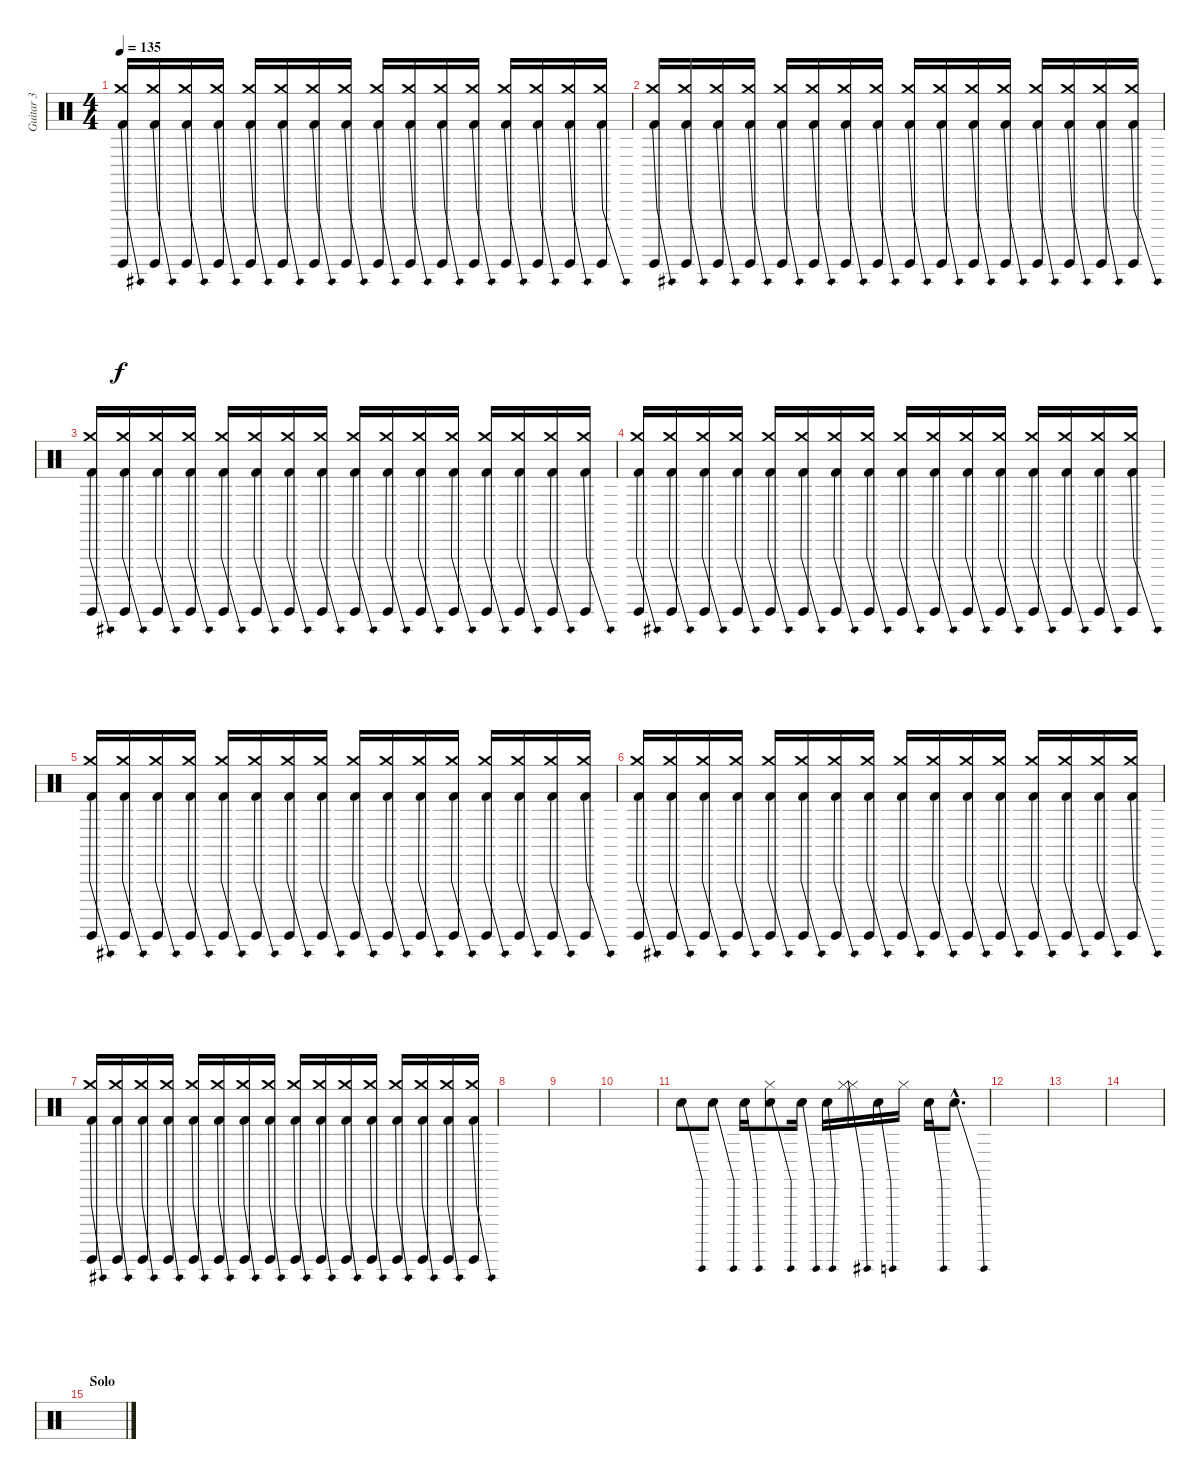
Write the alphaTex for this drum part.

\track ("Guitar 3" "Guitar 3") {instrument percussion}
\staff {score}
\articulation defaults
\ts (4 4)
\tempo 135
\clef neutral
\ks c
("Kick (hit) 2"{be (bend 0 0 60 12)} "Crash medium (hit)" "Guiro (hit)").16{dy f} ("Kick (hit) 2"{be (bend 0 0 60 12)} "Crash medium (hit)" "Guiro (hit)").16 ("Kick (hit) 2"{be (bend 0 0 60 12)} "Crash medium (hit)" "Guiro (hit)").16 ("Kick (hit) 2"{be (bend 0 0 60 12)} "Crash medium (hit)" "Guiro (hit)").16 ("Kick (hit) 2"{be (bend 0 0 60 12)} "Crash medium (hit)" "Guiro (hit)").16 ("Kick (hit) 2"{be (bend 0 0 60 12)} "Crash medium (hit)" "Guiro (hit)").16 ("Kick (hit) 2"{be (bend 0 0 60 12)} "Crash medium (hit)" "Guiro (hit)").16 ("Kick (hit) 2"{be (bend 0 0 60 12)} "Crash medium (hit)" "Guiro (hit)").16 ("Kick (hit) 2"{be (bend 0 0 60 12)} "Crash medium (hit)" "Guiro (hit)").16 ("Kick (hit) 2"{be (bend 0 0 60 12)} "Crash medium (hit)" "Guiro (hit)").16 ("Kick (hit) 2"{be (bend 0 0 60 12)} "Crash medium (hit)" "Guiro (hit)").16 ("Kick (hit) 2"{be (bend 0 0 60 12)} "Crash medium (hit)" "Guiro (hit)").16 ("Kick (hit) 2"{be (bend 0 0 60 12)} "Crash medium (hit)" "Guiro (hit)").16 ("Kick (hit) 2"{be (bend 0 0 60 12)} "Crash medium (hit)" "Guiro (hit)").16 ("Kick (hit) 2"{be (bend 0 0 60 12)} "Crash medium (hit)" "Guiro (hit)").16 ("Kick (hit) 2"{be (bend 0 0 60 12)} "Crash medium (hit)" "Guiro (hit)").16 |
("Kick (hit) 2"{be (bend 0 0 60 12)} "Crash medium (hit)" "Guiro (hit)").16 ("Kick (hit) 2"{be (bend 0 0 60 12)} "Crash medium (hit)" "Guiro (hit)").16 ("Kick (hit) 2"{be (bend 0 0 60 12)} "Crash medium (hit)" "Guiro (hit)").16 ("Kick (hit) 2"{be (bend 0 0 60 12)} "Crash medium (hit)" "Guiro (hit)").16 ("Kick (hit) 2"{be (bend 0 0 60 12)} "Crash medium (hit)" "Guiro (hit)").16 ("Kick (hit) 2"{be (bend 0 0 60 12)} "Crash medium (hit)" "Guiro (hit)").16 ("Kick (hit) 2"{be (bend 0 0 60 12)} "Crash medium (hit)" "Guiro (hit)").16 ("Kick (hit) 2"{be (bend 0 0 60 12)} "Crash medium (hit)" "Guiro (hit)").16 ("Kick (hit) 2"{be (bend 0 0 60 12)} "Crash medium (hit)" "Guiro (hit)").16 ("Kick (hit) 2"{be (bend 0 0 60 12)} "Crash medium (hit)" "Guiro (hit)").16 ("Kick (hit) 2"{be (bend 0 0 60 12)} "Crash medium (hit)" "Guiro (hit)").16 ("Kick (hit) 2"{be (bend 0 0 60 12)} "Crash medium (hit)" "Guiro (hit)").16 ("Kick (hit) 2"{be (bend 0 0 60 12)} "Crash medium (hit)" "Guiro (hit)").16 ("Kick (hit) 2"{be (bend 0 0 60 12)} "Crash medium (hit)" "Guiro (hit)").16 ("Kick (hit) 2"{be (bend 0 0 60 12)} "Crash medium (hit)" "Guiro (hit)").16 ("Kick (hit) 2"{be (bend 0 0 60 12)} "Crash medium (hit)" "Guiro (hit)").16 |
("Kick (hit) 2"{be (bend 0 0 60 12)} "Crash medium (hit)" "Guiro (hit)").16 ("Kick (hit) 2"{be (bend 0 0 60 12)} "Crash medium (hit)" "Guiro (hit)").16 ("Kick (hit) 2"{be (bend 0 0 60 12)} "Crash medium (hit)" "Guiro (hit)").16 ("Kick (hit) 2"{be (bend 0 0 60 12)} "Crash medium (hit)" "Guiro (hit)").16 ("Kick (hit) 2"{be (bend 0 0 60 12)} "Crash medium (hit)" "Guiro (hit)").16 ("Kick (hit) 2"{be (bend 0 0 60 12)} "Crash medium (hit)" "Guiro (hit)").16 ("Kick (hit) 2"{be (bend 0 0 60 12)} "Crash medium (hit)" "Guiro (hit)").16 ("Kick (hit) 2"{be (bend 0 0 60 12)} "Crash medium (hit)" "Guiro (hit)").16 ("Kick (hit) 2"{be (bend 0 0 60 12)} "Crash medium (hit)" "Guiro (hit)").16 ("Kick (hit) 2"{be (bend 0 0 60 12)} "Crash medium (hit)" "Guiro (hit)").16 ("Kick (hit) 2"{be (bend 0 0 60 12)} "Crash medium (hit)" "Guiro (hit)").16 ("Kick (hit) 2"{be (bend 0 0 60 12)} "Crash medium (hit)" "Guiro (hit)").16 ("Kick (hit) 2"{be (bend 0 0 60 12)} "Crash medium (hit)" "Guiro (hit)").16 ("Kick (hit) 2"{be (bend 0 0 60 12)} "Crash medium (hit)" "Guiro (hit)").16 ("Kick (hit) 2"{be (bend 0 0 60 12)} "Crash medium (hit)" "Guiro (hit)").16 ("Kick (hit) 2"{be (bend 0 0 60 12)} "Crash medium (hit)" "Guiro (hit)").16 |
("Kick (hit) 2"{be (bend 0 0 60 12)} "Crash medium (hit)" "Guiro (hit)").16 ("Kick (hit) 2"{be (bend 0 0 60 12)} "Crash medium (hit)" "Guiro (hit)").16 ("Kick (hit) 2"{be (bend 0 0 60 12)} "Crash medium (hit)" "Guiro (hit)").16 ("Kick (hit) 2"{be (bend 0 0 60 12)} "Crash medium (hit)" "Guiro (hit)").16 ("Kick (hit) 2"{be (bend 0 0 60 12)} "Crash medium (hit)" "Guiro (hit)").16 ("Kick (hit) 2"{be (bend 0 0 60 12)} "Crash medium (hit)" "Guiro (hit)").16 ("Kick (hit) 2"{be (bend 0 0 60 12)} "Crash medium (hit)" "Guiro (hit)").16 ("Kick (hit) 2"{be (bend 0 0 60 12)} "Crash medium (hit)" "Guiro (hit)").16 ("Kick (hit) 2"{be (bend 0 0 60 12)} "Crash medium (hit)" "Guiro (hit)").16 ("Kick (hit) 2"{be (bend 0 0 60 12)} "Crash medium (hit)" "Guiro (hit)").16 ("Kick (hit) 2"{be (bend 0 0 60 12)} "Crash medium (hit)" "Guiro (hit)").16 ("Kick (hit) 2"{be (bend 0 0 60 12)} "Crash medium (hit)" "Guiro (hit)").16 ("Kick (hit) 2"{be (bend 0 0 60 12)} "Crash medium (hit)" "Guiro (hit)").16 ("Kick (hit) 2"{be (bend 0 0 60 12)} "Crash medium (hit)" "Guiro (hit)").16 ("Kick (hit) 2"{be (bend 0 0 60 12)} "Crash medium (hit)" "Guiro (hit)").16 ("Kick (hit) 2"{be (bend 0 0 60 12)} "Crash medium (hit)" "Guiro (hit)").16 |
("Kick (hit) 2"{be (bend 0 0 60 12)} "Crash medium (hit)" "Guiro (hit)").16 ("Kick (hit) 2"{be (bend 0 0 60 12)} "Crash medium (hit)" "Guiro (hit)").16 ("Kick (hit) 2"{be (bend 0 0 60 12)} "Crash medium (hit)" "Guiro (hit)").16 ("Kick (hit) 2"{be (bend 0 0 60 12)} "Crash medium (hit)" "Guiro (hit)").16 ("Kick (hit) 2"{be (bend 0 0 60 12)} "Crash medium (hit)" "Guiro (hit)").16 ("Kick (hit) 2"{be (bend 0 0 60 12)} "Crash medium (hit)" "Guiro (hit)").16 ("Kick (hit) 2"{be (bend 0 0 60 12)} "Crash medium (hit)" "Guiro (hit)").16 ("Kick (hit) 2"{be (bend 0 0 60 12)} "Crash medium (hit)" "Guiro (hit)").16 ("Kick (hit) 2"{be (bend 0 0 60 12)} "Crash medium (hit)" "Guiro (hit)").16 ("Kick (hit) 2"{be (bend 0 0 60 12)} "Crash medium (hit)" "Guiro (hit)").16 ("Kick (hit) 2"{be (bend 0 0 60 12)} "Crash medium (hit)" "Guiro (hit)").16 ("Kick (hit) 2"{be (bend 0 0 60 12)} "Crash medium (hit)" "Guiro (hit)").16 ("Kick (hit) 2"{be (bend 0 0 60 12)} "Crash medium (hit)" "Guiro (hit)").16 ("Kick (hit) 2"{be (bend 0 0 60 12)} "Crash medium (hit)" "Guiro (hit)").16 ("Kick (hit) 2"{be (bend 0 0 60 12)} "Crash medium (hit)" "Guiro (hit)").16 ("Kick (hit) 2"{be (bend 0 0 60 12)} "Crash medium (hit)" "Guiro (hit)").16 |
("Kick (hit) 2"{be (bend 0 0 60 12)} "Crash medium (hit)" "Guiro (hit)").16 ("Kick (hit) 2"{be (bend 0 0 60 12)} "Crash medium (hit)" "Guiro (hit)").16 ("Kick (hit) 2"{be (bend 0 0 60 12)} "Crash medium (hit)" "Guiro (hit)").16 ("Kick (hit) 2"{be (bend 0 0 60 12)} "Crash medium (hit)" "Guiro (hit)").16 ("Kick (hit) 2"{be (bend 0 0 60 12)} "Crash medium (hit)" "Guiro (hit)").16 ("Kick (hit) 2"{be (bend 0 0 60 12)} "Crash medium (hit)" "Guiro (hit)").16 ("Kick (hit) 2"{be (bend 0 0 60 12)} "Crash medium (hit)" "Guiro (hit)").16 ("Kick (hit) 2"{be (bend 0 0 60 12)} "Crash medium (hit)" "Guiro (hit)").16 ("Kick (hit) 2"{be (bend 0 0 60 12)} "Crash medium (hit)" "Guiro (hit)").16 ("Kick (hit) 2"{be (bend 0 0 60 12)} "Crash medium (hit)" "Guiro (hit)").16 ("Kick (hit) 2"{be (bend 0 0 60 12)} "Crash medium (hit)" "Guiro (hit)").16 ("Kick (hit) 2"{be (bend 0 0 60 12)} "Crash medium (hit)" "Guiro (hit)").16 ("Kick (hit) 2"{be (bend 0 0 60 12)} "Crash medium (hit)" "Guiro (hit)").16 ("Kick (hit) 2"{be (bend 0 0 60 12)} "Crash medium (hit)" "Guiro (hit)").16 ("Kick (hit) 2"{be (bend 0 0 60 12)} "Crash medium (hit)" "Guiro (hit)").16 ("Kick (hit) 2"{be (bend 0 0 60 12)} "Crash medium (hit)" "Guiro (hit)").16 |
("Kick (hit) 2"{be (bend 0 0 60 12)} "Crash medium (hit)" "Guiro (hit)").16 ("Kick (hit) 2"{be (bend 0 0 60 12)} "Crash medium (hit)" "Guiro (hit)").16 ("Kick (hit) 2"{be (bend 0 0 60 12)} "Crash medium (hit)" "Guiro (hit)").16 ("Kick (hit) 2"{be (bend 0 0 60 12)} "Crash medium (hit)" "Guiro (hit)").16 ("Kick (hit) 2"{be (bend 0 0 60 12)} "Crash medium (hit)" "Guiro (hit)").16 ("Kick (hit) 2"{be (bend 0 0 60 12)} "Crash medium (hit)" "Guiro (hit)").16 ("Kick (hit) 2"{be (bend 0 0 60 12)} "Crash medium (hit)" "Guiro (hit)").16 ("Kick (hit) 2"{be (bend 0 0 60 12)} "Crash medium (hit)" "Guiro (hit)").16 ("Kick (hit) 2"{be (bend 0 0 60 12)} "Crash medium (hit)" "Guiro (hit)").16 ("Kick (hit) 2"{be (bend 0 0 60 12)} "Crash medium (hit)" "Guiro (hit)").16 ("Kick (hit) 2"{be (bend 0 0 60 12)} "Crash medium (hit)" "Guiro (hit)").16 ("Kick (hit) 2"{be (bend 0 0 60 12)} "Crash medium (hit)" "Guiro (hit)").16 ("Kick (hit) 2"{be (bend 0 0 60 12)} "Crash medium (hit)" "Guiro (hit)").16 ("Kick (hit) 2"{be (bend 0 0 60 12)} "Crash medium (hit)" "Guiro (hit)").16 ("Kick (hit) 2"{be (bend 0 0 60 12)} "Crash medium (hit)" "Guiro (hit)").16 ("Kick (hit) 2"{be (bend 0 0 60 12)} "Crash medium (hit)" "Guiro (hit)").16 |
|
|
|
"Snare (hit) 2"{be (bend 0 0 60 12)}.8{volume 12} "Snare (hit) 2"{be (bend 0 0 60 12)}.8 "Snare (hit) 2"{be (bend 0 0 60 12)}.16 ("Snare (hit) 2"{be (bend 0 0 60 12)} "Hi-Hat (closed)").8 "Snare (hit) 2"{be (bend 0 0 60 12)}.16 "Snare (hit) 2"{be (bend 0 0 60 12)}.16 ("Hi-Hat (closed)"{be (bend 0 0 60 12)} "Hi-Hat (closed)").16 "Snare (hit) 2"{be (bend 0 0 60 12)}.16 "Hi-Hat (closed)".16 "Snare (hit) 2"{be (bend 0 0 60 12)}.16 "Snare (hit) 2"{be (bend 0 0 60 12) hac}.8{d} |
|
|
|
\section ("" "Solo")
